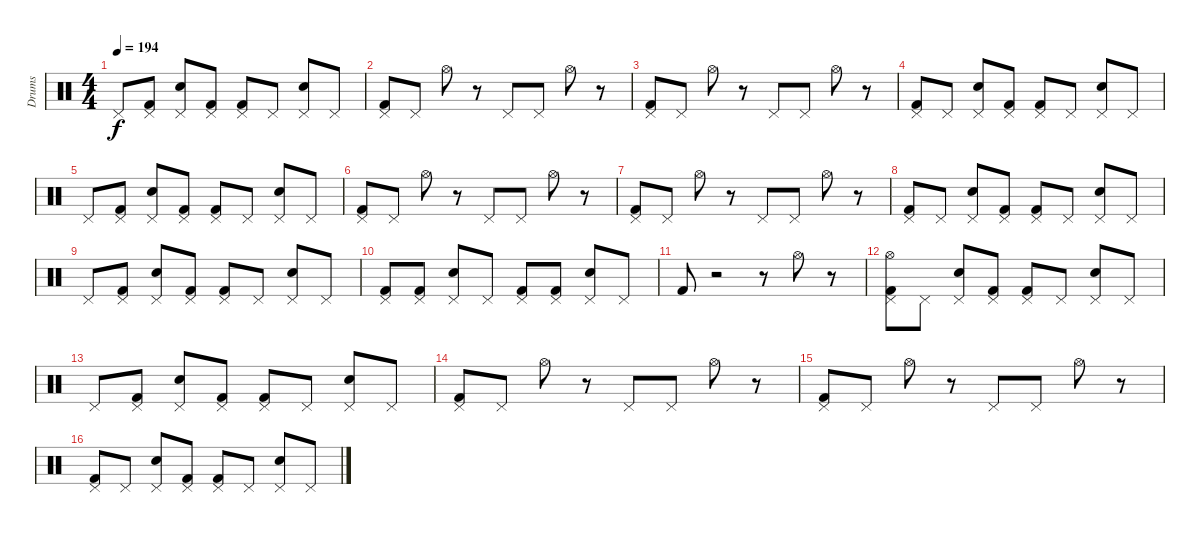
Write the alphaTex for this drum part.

\track ("Drums" "Drums") {instrument percussion}
\staff {score}
\articulation defaults
\ts (4 4)
\tempo 194
\clef neutral
\ks c "Pedal Hi-Hat (hit)".8{dy f}
("Kick (hit) 2" "Pedal Hi-Hat (hit)").8 ("Electric Snare (hit)" "Pedal Hi-Hat (hit)").8 ("Pedal Hi-Hat (hit)" "Kick (hit) 2").8 ("Kick (hit) 2" "Pedal Hi-Hat (hit)").8 "Pedal Hi-Hat (hit)".8 ("Electric Snare (hit)" "Pedal Hi-Hat (hit)").8 "Pedal Hi-Hat (hit)".8 |
("Kick (hit) 2" "Pedal Hi-Hat (hit)").8 "Pedal Hi-Hat (hit)".8 "Hi-Hat (open)".8 r.8 "Pedal Hi-Hat (hit)".8 "Pedal Hi-Hat (hit)".8 "Hi-Hat (open)".8 r.8 |
("Pedal Hi-Hat (hit)" "Kick (hit) 2").8 "Pedal Hi-Hat (hit)".8 "Hi-Hat (open)".8 r.8 "Pedal Hi-Hat (hit)".8 "Pedal Hi-Hat (hit)".8 "Hi-Hat (open)".8 r.8 |
("Kick (hit) 2" "Pedal Hi-Hat (hit)").8 "Pedal Hi-Hat (hit)".8 ("Pedal Hi-Hat (hit)" "Electric Snare (hit)").8 ("Pedal Hi-Hat (hit)" "Kick (hit) 2").8 ("Pedal Hi-Hat (hit)" "Kick (hit) 2").8 "Pedal Hi-Hat (hit)".8 ("Electric Snare (hit)" "Pedal Hi-Hat (hit)").8 "Pedal Hi-Hat (hit)".8 |
"Pedal Hi-Hat (hit)".8 ("Kick (hit) 2" "Pedal Hi-Hat (hit)").8 ("Electric Snare (hit)" "Pedal Hi-Hat (hit)").8 ("Kick (hit) 2" "Pedal Hi-Hat (hit)").8 ("Kick (hit) 2" "Pedal Hi-Hat (hit)").8 "Pedal Hi-Hat (hit)".8 ("Electric Snare (hit)" "Pedal Hi-Hat (hit)").8 "Pedal Hi-Hat (hit)".8 |
("Pedal Hi-Hat (hit)" "Kick (hit) 2").8 "Pedal Hi-Hat (hit)".8 "Hi-Hat (open)".8 r.8 "Pedal Hi-Hat (hit)".8 "Pedal Hi-Hat (hit)".8 "Hi-Hat (open)".8 r.8 |
("Pedal Hi-Hat (hit)" "Kick (hit) 2").8 "Pedal Hi-Hat (hit)".8 "Hi-Hat (open)".8 r.8 "Pedal Hi-Hat (hit)".8 "Pedal Hi-Hat (hit)".8 "Hi-Hat (open)".8 r.8 |
("Kick (hit) 2" "Pedal Hi-Hat (hit)").8 "Pedal Hi-Hat (hit)".8 ("Electric Snare (hit)" "Pedal Hi-Hat (hit)").8 ("Kick (hit) 2" "Pedal Hi-Hat (hit)").8 ("Kick (hit) 2" "Pedal Hi-Hat (hit)").8 "Pedal Hi-Hat (hit)".8 ("Electric Snare (hit)" "Pedal Hi-Hat (hit)").8 "Pedal Hi-Hat (hit)".8 |
"Pedal Hi-Hat (hit)".8 ("Kick (hit) 2" "Pedal Hi-Hat (hit)").8 ("Electric Snare (hit)" "Pedal Hi-Hat (hit)").8 ("Kick (hit) 2" "Pedal Hi-Hat (hit)").8 ("Kick (hit) 2" "Pedal Hi-Hat (hit)").8 "Pedal Hi-Hat (hit)".8 ("Electric Snare (hit)" "Pedal Hi-Hat (hit)").8 "Pedal Hi-Hat (hit)".8 |
("Pedal Hi-Hat (hit)" "Kick (hit) 2").8 ("Pedal Hi-Hat (hit)" "Kick (hit) 2").8 ("Pedal Hi-Hat (hit)" "Electric Snare (hit)").8 "Pedal Hi-Hat (hit)".8 ("Pedal Hi-Hat (hit)" "Kick (hit) 2").8 ("Kick (hit) 2" "Pedal Hi-Hat (hit)").8 ("Pedal Hi-Hat (hit)" "Electric Snare (hit)").8 "Pedal Hi-Hat (hit)".8 |
"Kick (hit) 2".8 r.2 r.8 "Hi-Hat (open)".8 r.8 |
("Hi-Hat (open)" "Pedal Hi-Hat (hit)" "Kick (hit) 2").8 "Pedal Hi-Hat (hit)".8 ("Electric Snare (hit)" "Pedal Hi-Hat (hit)").8 ("Kick (hit) 2" "Pedal Hi-Hat (hit)").8 ("Pedal Hi-Hat (hit)" "Kick (hit) 2").8 "Pedal Hi-Hat (hit)".8 ("Pedal Hi-Hat (hit)" "Electric Snare (hit)").8 "Pedal Hi-Hat (hit)".8 |
"Pedal Hi-Hat (hit)".8 ("Kick (hit) 2" "Pedal Hi-Hat (hit)").8 ("Electric Snare (hit)" "Pedal Hi-Hat (hit)").8 ("Kick (hit) 2" "Pedal Hi-Hat (hit)").8 ("Pedal Hi-Hat (hit)" "Kick (hit) 2").8 "Pedal Hi-Hat (hit)".8 ("Pedal Hi-Hat (hit)" "Electric Snare (hit)").8 "Pedal Hi-Hat (hit)".8 |
("Pedal Hi-Hat (hit)" "Kick (hit) 2").8 "Pedal Hi-Hat (hit)".8 "Hi-Hat (open)".8 r.8 "Pedal Hi-Hat (hit)".8 "Pedal Hi-Hat (hit)".8 "Hi-Hat (open)".8 r.8 |
("Kick (hit) 2" "Pedal Hi-Hat (hit)").8 "Pedal Hi-Hat (hit)".8 "Hi-Hat (open)".8 r.8 "Pedal Hi-Hat (hit)".8 "Pedal Hi-Hat (hit)".8 "Hi-Hat (open)".8 r.8 |
("Kick (hit) 2" "Pedal Hi-Hat (hit)").8 "Pedal Hi-Hat (hit)".8 ("Pedal Hi-Hat (hit)" "Electric Snare (hit)").8 ("Pedal Hi-Hat (hit)" "Kick (hit) 2").8 ("Pedal Hi-Hat (hit)" "Kick (hit) 2").8 "Pedal Hi-Hat (hit)".8 ("Pedal Hi-Hat (hit)" "Electric Snare (hit)").8 "Pedal Hi-Hat (hit)".8
